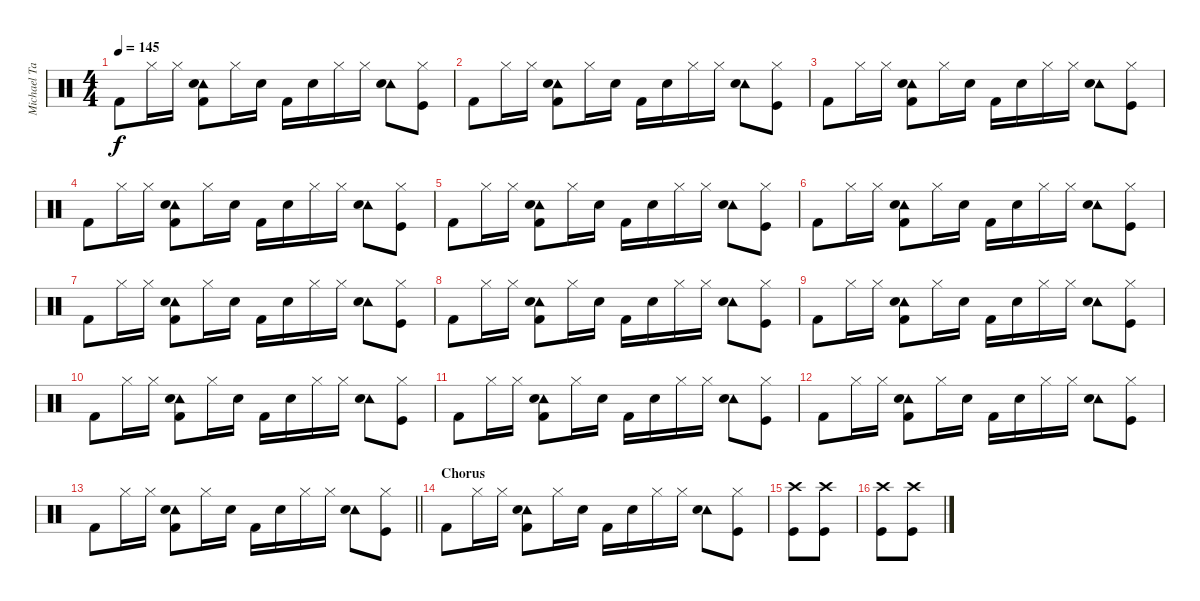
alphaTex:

\track ("Michael Tapper - Drums" "Michael Ta") {instrument percussion}
\staff {score}
\articulation defaults
\ts (4 4)
\tempo 145
\clef neutral
\ks c "Kick (hit) 2".8{dy f} "Hi-Hat (closed)".16 "Hi-Hat (closed)".16
("Tambourine (hit)" "Electric Snare (hit)" "Kick (hit) 2").8 "Hi-Hat (closed)".16 "Electric Snare (hit)".16 "Kick (hit) 2".16 "Electric Snare (hit)".16 "Hi-Hat (closed)".16 "Hi-Hat (closed)".16 ("Tambourine (hit)" "Electric Snare (hit)").8 ("Hi-Hat (closed)" "Kick (hit)").8 |
"Kick (hit) 2".8 "Hi-Hat (closed)".16 "Hi-Hat (closed)".16 ("Tambourine (hit)" "Electric Snare (hit)" "Kick (hit) 2").8 "Hi-Hat (closed)".16 "Electric Snare (hit)".16 "Kick (hit) 2".16 "Electric Snare (hit)".16 "Hi-Hat (closed)".16 "Hi-Hat (closed)".16 ("Tambourine (hit)" "Electric Snare (hit)").8 ("Hi-Hat (closed)" "Kick (hit)").8 |
"Kick (hit) 2".8 "Hi-Hat (closed)".16 "Hi-Hat (closed)".16 ("Tambourine (hit)" "Electric Snare (hit)" "Kick (hit) 2").8 "Hi-Hat (closed)".16 "Electric Snare (hit)".16 "Kick (hit) 2".16 "Electric Snare (hit)".16 "Hi-Hat (closed)".16 "Hi-Hat (closed)".16 ("Tambourine (hit)" "Electric Snare (hit)").8 ("Hi-Hat (closed)" "Kick (hit)").8 |
"Kick (hit) 2".8 "Hi-Hat (closed)".16 "Hi-Hat (closed)".16 ("Tambourine (hit)" "Electric Snare (hit)" "Kick (hit) 2").8 "Hi-Hat (closed)".16 "Electric Snare (hit)".16 "Kick (hit) 2".16 "Electric Snare (hit)".16 "Hi-Hat (closed)".16 "Hi-Hat (closed)".16 ("Tambourine (hit)" "Electric Snare (hit)").8 ("Hi-Hat (closed)" "Kick (hit)").8 |
"Kick (hit) 2".8 "Hi-Hat (closed)".16 "Hi-Hat (closed)".16 ("Tambourine (hit)" "Electric Snare (hit)" "Kick (hit) 2").8 "Hi-Hat (closed)".16 "Electric Snare (hit)".16 "Kick (hit) 2".16 "Electric Snare (hit)".16 "Hi-Hat (closed)".16 "Hi-Hat (closed)".16 ("Tambourine (hit)" "Electric Snare (hit)").8 ("Hi-Hat (closed)" "Kick (hit)").8 |
"Kick (hit) 2".8 "Hi-Hat (closed)".16 "Hi-Hat (closed)".16 ("Tambourine (hit)" "Electric Snare (hit)" "Kick (hit) 2").8 "Hi-Hat (closed)".16 "Electric Snare (hit)".16 "Kick (hit) 2".16 "Electric Snare (hit)".16 "Hi-Hat (closed)".16 "Hi-Hat (closed)".16 ("Tambourine (hit)" "Electric Snare (hit)").8 ("Hi-Hat (closed)" "Kick (hit)").8 |
"Kick (hit) 2".8 "Hi-Hat (closed)".16 "Hi-Hat (closed)".16 ("Tambourine (hit)" "Electric Snare (hit)" "Kick (hit) 2").8 "Hi-Hat (closed)".16 "Electric Snare (hit)".16 "Kick (hit) 2".16 "Electric Snare (hit)".16 "Hi-Hat (closed)".16 "Hi-Hat (closed)".16 ("Tambourine (hit)" "Electric Snare (hit)").8 ("Hi-Hat (closed)" "Kick (hit)").8 |
"Kick (hit) 2".8 "Hi-Hat (closed)".16 "Hi-Hat (closed)".16 ("Tambourine (hit)" "Electric Snare (hit)" "Kick (hit) 2").8 "Hi-Hat (closed)".16 "Electric Snare (hit)".16 "Kick (hit) 2".16 "Electric Snare (hit)".16 "Hi-Hat (closed)".16 "Hi-Hat (closed)".16 ("Tambourine (hit)" "Electric Snare (hit)").8 ("Hi-Hat (closed)" "Kick (hit)").8 |
"Kick (hit) 2".8 "Hi-Hat (closed)".16 "Hi-Hat (closed)".16 ("Tambourine (hit)" "Electric Snare (hit)" "Kick (hit) 2").8 "Hi-Hat (closed)".16 "Electric Snare (hit)".16 "Kick (hit) 2".16 "Electric Snare (hit)".16 "Hi-Hat (closed)".16 "Hi-Hat (closed)".16 ("Tambourine (hit)" "Electric Snare (hit)").8 ("Hi-Hat (closed)" "Kick (hit)").8 |
"Kick (hit) 2".8 "Hi-Hat (closed)".16 "Hi-Hat (closed)".16 ("Tambourine (hit)" "Electric Snare (hit)" "Kick (hit) 2").8 "Hi-Hat (closed)".16 "Electric Snare (hit)".16 "Kick (hit) 2".16 "Electric Snare (hit)".16 "Hi-Hat (closed)".16 "Hi-Hat (closed)".16 ("Tambourine (hit)" "Electric Snare (hit)").8 ("Hi-Hat (closed)" "Kick (hit)").8 |
"Kick (hit) 2".8 "Hi-Hat (closed)".16 "Hi-Hat (closed)".16 ("Tambourine (hit)" "Electric Snare (hit)" "Kick (hit) 2").8 "Hi-Hat (closed)".16 "Electric Snare (hit)".16 "Kick (hit) 2".16 "Electric Snare (hit)".16 "Hi-Hat (closed)".16 "Hi-Hat (closed)".16 ("Tambourine (hit)" "Electric Snare (hit)").8 ("Hi-Hat (closed)" "Kick (hit)").8 |
"Kick (hit) 2".8 "Hi-Hat (closed)".16 "Hi-Hat (closed)".16 ("Tambourine (hit)" "Electric Snare (hit)" "Kick (hit) 2").8 "Hi-Hat (closed)".16 "Electric Snare (hit)".16 "Kick (hit) 2".16 "Electric Snare (hit)".16 "Hi-Hat (closed)".16 "Hi-Hat (closed)".16 ("Tambourine (hit)" "Electric Snare (hit)").8 ("Hi-Hat (closed)" "Kick (hit)").8 |
\barLineRight lightlight "Kick (hit) 2".8 "Hi-Hat (closed)".16 "Hi-Hat (closed)".16
("Tambourine (hit)" "Electric Snare (hit)" "Kick (hit) 2").8 "Hi-Hat (closed)".16 "Electric Snare (hit)".16 "Kick (hit) 2".16 "Electric Snare (hit)".16 "Hi-Hat (closed)".16 "Hi-Hat (closed)".16 ("Tambourine (hit)" "Electric Snare (hit)").8 ("Hi-Hat (closed)" "Kick (hit)").8 |
\section ("" "Chorus")
"Kick (hit) 2".8 "Hi-Hat (closed)".16 "Hi-Hat (closed)".16 ("Tambourine (hit)" "Electric Snare (hit)" "Kick (hit) 2").8 "Hi-Hat (closed)".16 "Electric Snare (hit)".16 "Kick (hit) 2".16 "Electric Snare (hit)".16 "Hi-Hat (closed)".16 "Hi-Hat (closed)".16 ("Tambourine (hit)" "Electric Snare (hit)").8 ("Hi-Hat (closed)" "Kick (hit)").8 |
("Crash high (hit)" "Kick (hit)").8 ("Kick (hit)" "Crash high (hit)").8 |
("Crash high (hit)" "Kick (hit)").8 ("Kick (hit)" "Crash high (hit)").8
